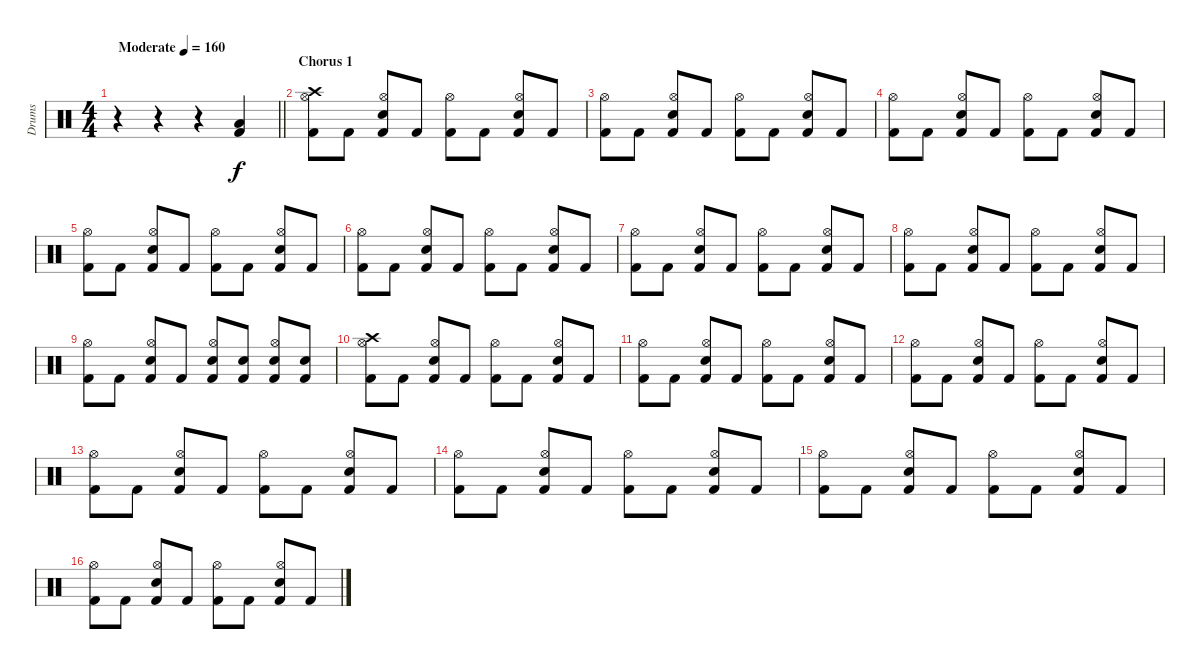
\track ("Drums" "Drums") {instrument percussion}
\staff {score}
\articulation defaults
\ts (4 4)
\tempo (160 "Moderate")
\clef neutral
\barLineRight lightlight
\ks c
r.4{dy f} r.4 r.4 ("Low Floor Tom (hit)" "Kick (hit) 2").4 |
\section ("" "Chorus 1")
("Crash high (hit)" "Hi-Hat (open)" "Kick (hit) 2").8 "Kick (hit) 2".8 ("Hi-Hat (open)" "Snare (hit) 2" "Kick (hit) 2").8 "Kick (hit) 2".8 ("Hi-Hat (open)" "Kick (hit) 2").8 "Kick (hit) 2".8 ("Hi-Hat (open)" "Snare (hit) 2" "Kick (hit) 2").8 "Kick (hit) 2".8 |
("Hi-Hat (open)" "Kick (hit) 2").8 "Kick (hit) 2".8 ("Hi-Hat (open)" "Snare (hit) 2" "Kick (hit) 2").8 "Kick (hit) 2".8 ("Hi-Hat (open)" "Kick (hit) 2").8 "Kick (hit) 2".8 ("Hi-Hat (open)" "Snare (hit) 2" "Kick (hit) 2").8 "Kick (hit) 2".8 |
("Hi-Hat (open)" "Kick (hit) 2").8 "Kick (hit) 2".8 ("Hi-Hat (open)" "Snare (hit) 2" "Kick (hit) 2").8 "Kick (hit) 2".8 ("Hi-Hat (open)" "Kick (hit) 2").8 "Kick (hit) 2".8 ("Hi-Hat (open)" "Snare (hit) 2" "Kick (hit) 2").8 "Kick (hit) 2".8 |
("Hi-Hat (open)" "Kick (hit) 2").8 "Kick (hit) 2".8 ("Hi-Hat (open)" "Snare (hit) 2" "Kick (hit) 2").8 "Kick (hit) 2".8 ("Hi-Hat (open)" "Kick (hit) 2").8 "Kick (hit) 2".8 ("Hi-Hat (open)" "Snare (hit) 2" "Kick (hit) 2").8 "Kick (hit) 2".8 |
("Hi-Hat (open)" "Kick (hit) 2").8 "Kick (hit) 2".8 ("Hi-Hat (open)" "Snare (hit) 2" "Kick (hit) 2").8 "Kick (hit) 2".8 ("Hi-Hat (open)" "Kick (hit) 2").8 "Kick (hit) 2".8 ("Hi-Hat (open)" "Snare (hit) 2" "Kick (hit) 2").8 "Kick (hit) 2".8 |
("Hi-Hat (open)" "Kick (hit) 2").8 "Kick (hit) 2".8 ("Hi-Hat (open)" "Snare (hit) 2" "Kick (hit) 2").8 "Kick (hit) 2".8 ("Hi-Hat (open)" "Kick (hit) 2").8 "Kick (hit) 2".8 ("Hi-Hat (open)" "Snare (hit) 2" "Kick (hit) 2").8 "Kick (hit) 2".8 |
("Hi-Hat (open)" "Kick (hit) 2").8 "Kick (hit) 2".8 ("Hi-Hat (open)" "Snare (hit) 2" "Kick (hit) 2").8 "Kick (hit) 2".8 ("Hi-Hat (open)" "Kick (hit) 2").8 "Kick (hit) 2".8 ("Hi-Hat (open)" "Snare (hit) 2" "Kick (hit) 2").8 "Kick (hit) 2".8 |
("Hi-Hat (open)" "Kick (hit) 2").8 "Kick (hit) 2".8 ("Hi-Hat (open)" "Snare (hit) 2" "Kick (hit) 2").8 "Kick (hit) 2".8 ("Hi-Hat (open)" "Snare (hit) 2" "Kick (hit) 2").8 ("Snare (hit) 2" "Kick (hit) 2").8 ("Hi-Hat (open)" "Snare (hit) 2" "Kick (hit) 2").8 ("Snare (hit) 2" "Kick (hit) 2").8 |
("Crash high (hit)" "Hi-Hat (open)" "Kick (hit) 2").8 "Kick (hit) 2".8 ("Hi-Hat (open)" "Snare (hit) 2" "Kick (hit) 2").8 "Kick (hit) 2".8 ("Hi-Hat (open)" "Kick (hit) 2").8 "Kick (hit) 2".8 ("Hi-Hat (open)" "Snare (hit) 2" "Kick (hit) 2").8 "Kick (hit) 2".8 |
("Hi-Hat (open)" "Kick (hit) 2").8 "Kick (hit) 2".8 ("Hi-Hat (open)" "Snare (hit) 2" "Kick (hit) 2").8 "Kick (hit) 2".8 ("Hi-Hat (open)" "Kick (hit) 2").8 "Kick (hit) 2".8 ("Hi-Hat (open)" "Snare (hit) 2" "Kick (hit) 2").8 "Kick (hit) 2".8 |
("Hi-Hat (open)" "Kick (hit) 2").8 "Kick (hit) 2".8 ("Hi-Hat (open)" "Snare (hit) 2" "Kick (hit) 2").8 "Kick (hit) 2".8 ("Hi-Hat (open)" "Kick (hit) 2").8 "Kick (hit) 2".8 ("Hi-Hat (open)" "Snare (hit) 2" "Kick (hit) 2").8 "Kick (hit) 2".8 |
("Hi-Hat (open)" "Kick (hit) 2").8 "Kick (hit) 2".8 ("Hi-Hat (open)" "Snare (hit) 2" "Kick (hit) 2").8 "Kick (hit) 2".8 ("Hi-Hat (open)" "Kick (hit) 2").8 "Kick (hit) 2".8 ("Hi-Hat (open)" "Snare (hit) 2" "Kick (hit) 2").8 "Kick (hit) 2".8 |
("Hi-Hat (open)" "Kick (hit) 2").8 "Kick (hit) 2".8 ("Hi-Hat (open)" "Snare (hit) 2" "Kick (hit) 2").8 "Kick (hit) 2".8 ("Hi-Hat (open)" "Kick (hit) 2").8 "Kick (hit) 2".8 ("Hi-Hat (open)" "Snare (hit) 2" "Kick (hit) 2").8 "Kick (hit) 2".8 |
("Hi-Hat (open)" "Kick (hit) 2").8 "Kick (hit) 2".8 ("Hi-Hat (open)" "Snare (hit) 2" "Kick (hit) 2").8 "Kick (hit) 2".8 ("Hi-Hat (open)" "Kick (hit) 2").8 "Kick (hit) 2".8 ("Hi-Hat (open)" "Snare (hit) 2" "Kick (hit) 2").8 "Kick (hit) 2".8 |
("Hi-Hat (open)" "Kick (hit) 2").8 "Kick (hit) 2".8 ("Hi-Hat (open)" "Snare (hit) 2" "Kick (hit) 2").8 "Kick (hit) 2".8 ("Hi-Hat (open)" "Kick (hit) 2").8 "Kick (hit) 2".8 ("Hi-Hat (open)" "Snare (hit) 2" "Kick (hit) 2").8 "Kick (hit) 2".8
